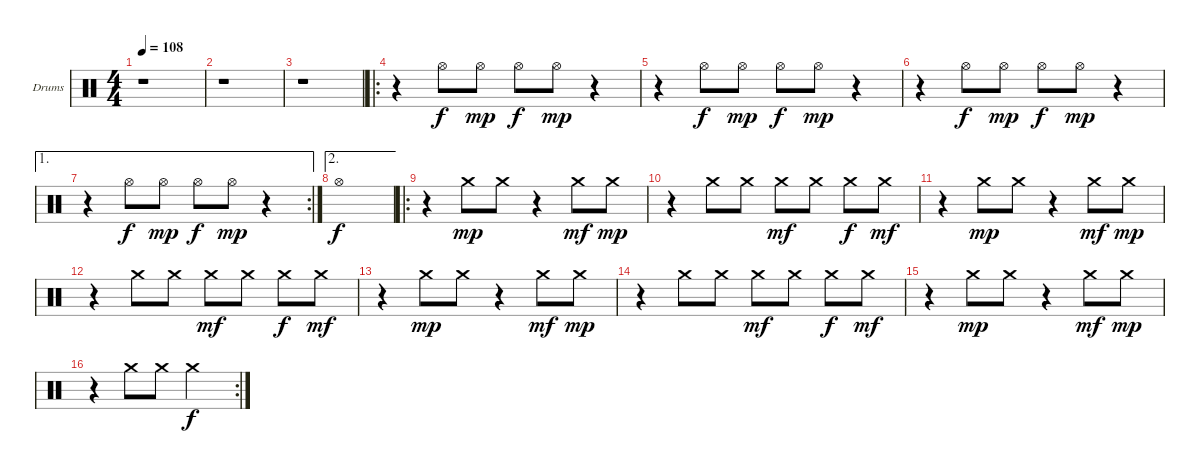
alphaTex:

\bracketExtendMode groupsimilarinstruments
\firstSystemTrackNameOrientation horizontal
\otherSystemsTrackNameOrientation horizontal
\track ("Drumkit" "Drums") {instrument percussion}
\staff {score}
\articulation defaults
\ts (4 4)
\tempo 108
\clef neutral
\ks c
r.1{dy f} |
r.1 |
r.1 |
\ro
r.4 "Hi-Hat (open)".8 "Hi-Hat (open)".8{dy mp} "Hi-Hat (open)".8{dy f} "Hi-Hat (open)".8{dy mp} r.4 |
r.4 "Hi-Hat (open)".8{dy f} "Hi-Hat (open)".8{dy mp} "Hi-Hat (open)".8{dy f} "Hi-Hat (open)".8{dy mp} r.4 |
r.4 "Hi-Hat (open)".8{dy f} "Hi-Hat (open)".8{dy mp} "Hi-Hat (open)".8{dy f} "Hi-Hat (open)".8{dy mp} r.4 |
\ae 1
\rc 2
r.4 "Hi-Hat (open)".8{dy f} "Hi-Hat (open)".8{dy mp} "Hi-Hat (open)".8{dy f} "Hi-Hat (open)".8{dy mp} r.4 |
\ae 2 "Hi-Hat (open)".1{dy f}
|
\ro
r.4 "Crash medium (hit)".8{dy mp} "Crash medium (hit)".8 r.4 "Crash medium (hit)".8{dy mf} "Crash medium (hit)".8{dy mp} |
r.4 "Crash medium (hit)".8 "Crash medium (hit)".8 "Crash medium (hit)".8{dy mf} "Crash medium (hit)".8 "Crash medium (hit)".8{dy f} "Crash medium (hit)".8{dy mf} |
r.4 "Crash medium (hit)".8{dy mp} "Crash medium (hit)".8 r.4 "Crash medium (hit)".8{dy mf} "Crash medium (hit)".8{dy mp} |
r.4 "Crash medium (hit)".8 "Crash medium (hit)".8 "Crash medium (hit)".8{dy mf} "Crash medium (hit)".8 "Crash medium (hit)".8{dy f} "Crash medium (hit)".8{dy mf} |
r.4 "Crash medium (hit)".8{dy mp} "Crash medium (hit)".8 r.4 "Crash medium (hit)".8{dy mf} "Crash medium (hit)".8{dy mp} |
r.4 "Crash medium (hit)".8 "Crash medium (hit)".8 "Crash medium (hit)".8{dy mf} "Crash medium (hit)".8 "Crash medium (hit)".8{dy f} "Crash medium (hit)".8{dy mf} |
r.4 "Crash medium (hit)".8{dy mp} "Crash medium (hit)".8 r.4 "Crash medium (hit)".8{dy mf} "Crash medium (hit)".8{dy mp} |
\rc 2
r.4 "Crash medium (hit)".8 "Crash medium (hit)".8 "Crash medium (hit)".2{dy f}
